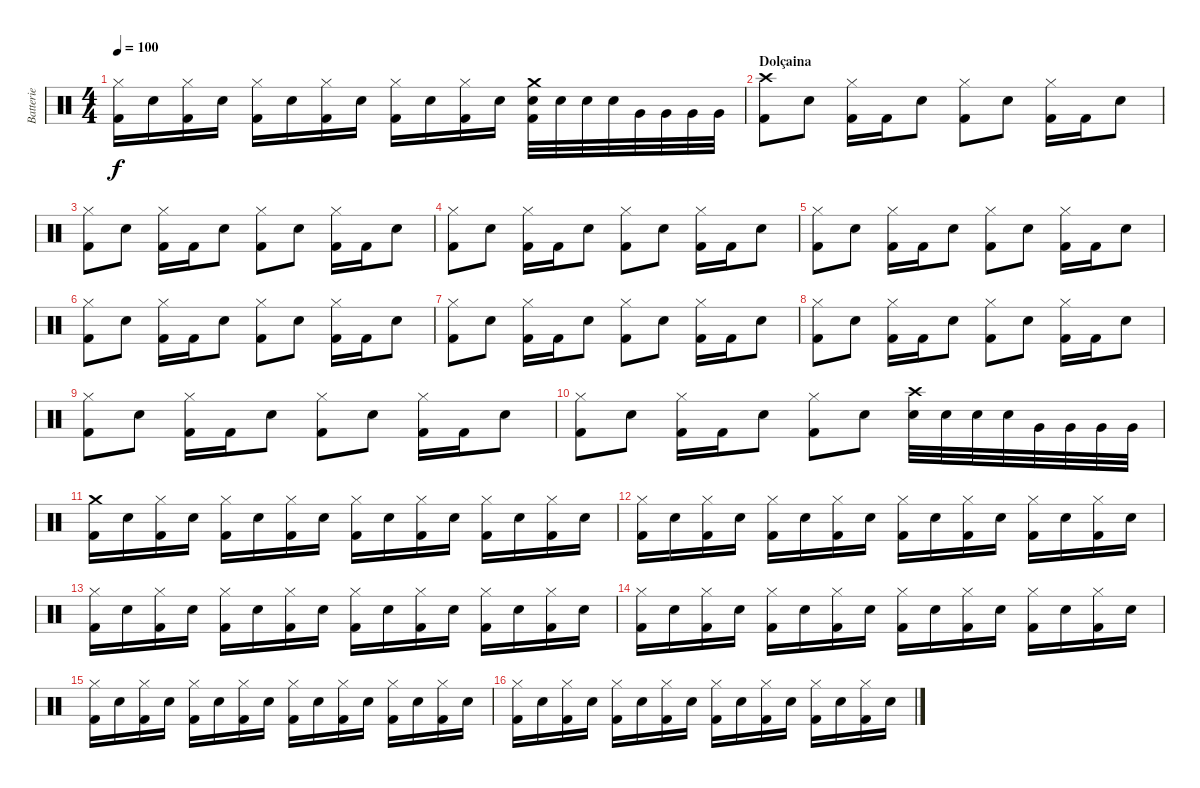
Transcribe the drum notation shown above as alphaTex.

\track ("Batterie" "Batterie") {instrument percussion}
\staff {score}
\articulation defaults
\ts (4 4)
\tempo 100
\clef neutral
\ks c
("Hi-Hat (closed)" "Kick (hit) 2").16{dy f} "Snare (hit) 2".16 ("Hi-Hat (closed)" "Kick (hit) 2").16 "Snare (hit) 2".16 ("Hi-Hat (closed)" "Kick (hit) 2").16 "Snare (hit) 2".16 ("Hi-Hat (closed)" "Kick (hit) 2").16 "Snare (hit) 2".16 ("Hi-Hat (closed)" "Kick (hit) 2").16 "Snare (hit) 2".16 ("Hi-Hat (closed)" "Kick (hit) 2").16 "Snare (hit) 2".16 ("Crash medium (hit)" "Snare (hit) 2" "Kick (hit) 2").32 "Snare (hit) 2".32 "Snare (hit) 2".32 "Snare (hit) 2".32 "Very Low Tom (hit)".32 "Very Low Tom (hit)".32 "Very Low Tom (hit)".32 "Very Low Tom (hit)".32 |
\section ("" "Dolçaina")
("Crash high (hit)" "Kick (hit) 2").8 "Snare (hit) 2".8 ("Hi-Hat (closed)" "Kick (hit) 2").16 "Kick (hit) 2".16 "Snare (hit) 2".8 ("Hi-Hat (closed)" "Kick (hit) 2").8 "Snare (hit) 2".8 ("Hi-Hat (closed)" "Kick (hit) 2").16 "Kick (hit) 2".16 "Snare (hit) 2".8 |
("Hi-Hat (closed)" "Kick (hit) 2").8 "Snare (hit) 2".8 ("Hi-Hat (closed)" "Kick (hit) 2").16 "Kick (hit) 2".16 "Snare (hit) 2".8 ("Hi-Hat (closed)" "Kick (hit) 2").8 "Snare (hit) 2".8 ("Hi-Hat (closed)" "Kick (hit) 2").16 "Kick (hit) 2".16 "Snare (hit) 2".8 |
("Hi-Hat (closed)" "Kick (hit) 2").8 "Snare (hit) 2".8 ("Hi-Hat (closed)" "Kick (hit) 2").16 "Kick (hit) 2".16 "Snare (hit) 2".8 ("Hi-Hat (closed)" "Kick (hit) 2").8 "Snare (hit) 2".8 ("Hi-Hat (closed)" "Kick (hit) 2").16 "Kick (hit) 2".16 "Snare (hit) 2".8 |
("Hi-Hat (closed)" "Kick (hit) 2").8 "Snare (hit) 2".8 ("Hi-Hat (closed)" "Kick (hit) 2").16 "Kick (hit) 2".16 "Snare (hit) 2".8 ("Hi-Hat (closed)" "Kick (hit) 2").8 "Snare (hit) 2".8 ("Hi-Hat (closed)" "Kick (hit) 2").16 "Kick (hit) 2".16 "Snare (hit) 2".8 |
("Hi-Hat (closed)" "Kick (hit) 2").8 "Snare (hit) 2".8 ("Hi-Hat (closed)" "Kick (hit) 2").16 "Kick (hit) 2".16 "Snare (hit) 2".8 ("Hi-Hat (closed)" "Kick (hit) 2").8 "Snare (hit) 2".8 ("Hi-Hat (closed)" "Kick (hit) 2").16 "Kick (hit) 2".16 "Snare (hit) 2".8 |
("Hi-Hat (closed)" "Kick (hit) 2").8 "Snare (hit) 2".8 ("Hi-Hat (closed)" "Kick (hit) 2").16 "Kick (hit) 2".16 "Snare (hit) 2".8 ("Hi-Hat (closed)" "Kick (hit) 2").8 "Snare (hit) 2".8 ("Hi-Hat (closed)" "Kick (hit) 2").16 "Kick (hit) 2".16 "Snare (hit) 2".8 |
("Hi-Hat (closed)" "Kick (hit) 2").8 "Snare (hit) 2".8 ("Hi-Hat (closed)" "Kick (hit) 2").16 "Kick (hit) 2".16 "Snare (hit) 2".8 ("Hi-Hat (closed)" "Kick (hit) 2").8 "Snare (hit) 2".8 ("Hi-Hat (closed)" "Kick (hit) 2").16 "Kick (hit) 2".16 "Snare (hit) 2".8 |
("Hi-Hat (closed)" "Kick (hit) 2").8 "Snare (hit) 2".8 ("Hi-Hat (closed)" "Kick (hit) 2").16 "Kick (hit) 2".16 "Snare (hit) 2".8 ("Hi-Hat (closed)" "Kick (hit) 2").8 "Snare (hit) 2".8 ("Hi-Hat (closed)" "Kick (hit) 2").16 "Kick (hit) 2".16 "Snare (hit) 2".8 |
("Hi-Hat (closed)" "Kick (hit) 2").8 "Snare (hit) 2".8 ("Hi-Hat (closed)" "Kick (hit) 2").16 "Kick (hit) 2".16 "Snare (hit) 2".8 ("Hi-Hat (closed)" "Kick (hit) 2").8 "Snare (hit) 2".8 ("Crash high (hit)" "Snare (hit) 2").32 "Snare (hit) 2".32 "Snare (hit) 2".32 "Snare (hit) 2".32 "Very Low Tom (hit)".32 "Very Low Tom (hit)".32 "Very Low Tom (hit)".32 "Very Low Tom (hit)".32 |
("Crash medium (hit)" "Kick (hit) 2").16 "Snare (hit) 2".16 ("Hi-Hat (closed)" "Kick (hit) 2").16 "Snare (hit) 2".16 ("Hi-Hat (closed)" "Kick (hit) 2").16 "Snare (hit) 2".16 ("Hi-Hat (closed)" "Kick (hit) 2").16 "Snare (hit) 2".16 ("Hi-Hat (closed)" "Kick (hit) 2").16 "Snare (hit) 2".16 ("Hi-Hat (closed)" "Kick (hit) 2").16 "Snare (hit) 2".16 ("Hi-Hat (closed)" "Kick (hit) 2").16 "Snare (hit) 2".16 ("Hi-Hat (closed)" "Kick (hit) 2").16 "Snare (hit) 2".16 |
("Hi-Hat (closed)" "Kick (hit) 2").16 "Snare (hit) 2".16 ("Hi-Hat (closed)" "Kick (hit) 2").16 "Snare (hit) 2".16 ("Hi-Hat (closed)" "Kick (hit) 2").16 "Snare (hit) 2".16 ("Hi-Hat (closed)" "Kick (hit) 2").16 "Snare (hit) 2".16 ("Hi-Hat (closed)" "Kick (hit) 2").16 "Snare (hit) 2".16 ("Hi-Hat (closed)" "Kick (hit) 2").16 "Snare (hit) 2".16 ("Hi-Hat (closed)" "Kick (hit) 2").16 "Snare (hit) 2".16 ("Hi-Hat (closed)" "Kick (hit) 2").16 "Snare (hit) 2".16 |
("Hi-Hat (closed)" "Kick (hit) 2").16 "Snare (hit) 2".16 ("Hi-Hat (closed)" "Kick (hit) 2").16 "Snare (hit) 2".16 ("Hi-Hat (closed)" "Kick (hit) 2").16 "Snare (hit) 2".16 ("Hi-Hat (closed)" "Kick (hit) 2").16 "Snare (hit) 2".16 ("Hi-Hat (closed)" "Kick (hit) 2").16 "Snare (hit) 2".16 ("Hi-Hat (closed)" "Kick (hit) 2").16 "Snare (hit) 2".16 ("Hi-Hat (closed)" "Kick (hit) 2").16 "Snare (hit) 2".16 ("Hi-Hat (closed)" "Kick (hit) 2").16 "Snare (hit) 2".16 |
("Hi-Hat (closed)" "Kick (hit) 2").16 "Snare (hit) 2".16 ("Hi-Hat (closed)" "Kick (hit) 2").16 "Snare (hit) 2".16 ("Hi-Hat (closed)" "Kick (hit) 2").16 "Snare (hit) 2".16 ("Hi-Hat (closed)" "Kick (hit) 2").16 "Snare (hit) 2".16 ("Hi-Hat (closed)" "Kick (hit) 2").16 "Snare (hit) 2".16 ("Hi-Hat (closed)" "Kick (hit) 2").16 "Snare (hit) 2".16 ("Hi-Hat (closed)" "Kick (hit) 2").16 "Snare (hit) 2".16 ("Hi-Hat (closed)" "Kick (hit) 2").16 "Snare (hit) 2".16 |
("Hi-Hat (closed)" "Kick (hit) 2").16 "Snare (hit) 2".16 ("Hi-Hat (closed)" "Kick (hit) 2").16 "Snare (hit) 2".16 ("Hi-Hat (closed)" "Kick (hit) 2").16 "Snare (hit) 2".16 ("Hi-Hat (closed)" "Kick (hit) 2").16 "Snare (hit) 2".16 ("Hi-Hat (closed)" "Kick (hit) 2").16 "Snare (hit) 2".16 ("Hi-Hat (closed)" "Kick (hit) 2").16 "Snare (hit) 2".16 ("Hi-Hat (closed)" "Kick (hit) 2").16 "Snare (hit) 2".16 ("Hi-Hat (closed)" "Kick (hit) 2").16 "Snare (hit) 2".16 |
("Hi-Hat (closed)" "Kick (hit) 2").16 "Snare (hit) 2".16 ("Hi-Hat (closed)" "Kick (hit) 2").16 "Snare (hit) 2".16 ("Hi-Hat (closed)" "Kick (hit) 2").16 "Snare (hit) 2".16 ("Hi-Hat (closed)" "Kick (hit) 2").16 "Snare (hit) 2".16 ("Hi-Hat (closed)" "Kick (hit) 2").16 "Snare (hit) 2".16 ("Hi-Hat (closed)" "Kick (hit) 2").16 "Snare (hit) 2".16 ("Hi-Hat (closed)" "Kick (hit) 2").16 "Snare (hit) 2".16 ("Hi-Hat (closed)" "Kick (hit) 2").16 "Snare (hit) 2".16
